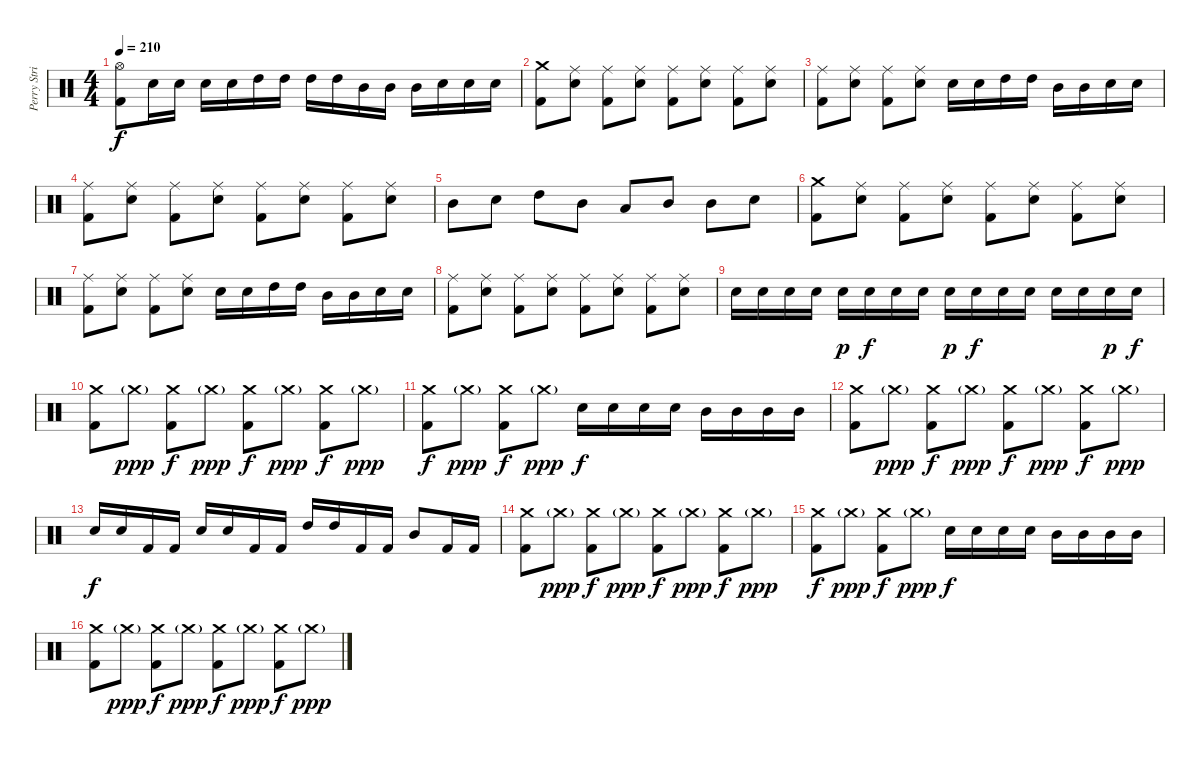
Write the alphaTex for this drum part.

\track ("Perry Strickland" "Perry Stri") {instrument percussion}
\staff {score}
\articulation defaults
\ts (4 4)
\tempo 210
\clef neutral
\ks c
("Hi-Hat (open)" "Kick (hit) 2").8{dy f} "Electric Snare (hit)".16 "Electric Snare (hit)".16 "Electric Snare (hit)".16 "Electric Snare (hit)".16 "High Tom (hit)".16 "High Tom (hit)".16 "High Tom (hit)".16 "High Tom (hit)".16 "Mid Tom (hit)".16 "Mid Tom (hit)".16 "Mid Tom (hit)".16 "Electric Snare (hit)".16 "Electric Snare (hit)".16 "Electric Snare (hit)".16 |
("Crash medium (hit)" "Kick (hit) 2").8 ("Ride (middle)" "Electric Snare (hit)").8 ("Ride (middle)" "Kick (hit) 2").8 ("Ride (middle)" "Electric Snare (hit)").8 ("Ride (middle)" "Kick (hit) 2").8 ("Ride (middle)" "Electric Snare (hit)").8 ("Ride (middle)" "Kick (hit) 2").8 ("Ride (middle)" "Electric Snare (hit)").8 |
("Ride (middle)" "Kick (hit) 2").8 ("Ride (middle)" "Electric Snare (hit)").8 ("Ride (middle)" "Kick (hit) 2").8 ("Ride (middle)" "Electric Snare (hit)").8 "Electric Snare (hit)".16 "Electric Snare (hit)".16 "High Tom (hit)".16 "High Tom (hit)".16 "Mid Tom (hit)".16 "Mid Tom (hit)".16 "Electric Snare (hit)".16 "Electric Snare (hit)".16 |
("Ride (middle)" "Kick (hit) 2").8 ("Ride (middle)" "Electric Snare (hit)").8 ("Ride (middle)" "Kick (hit) 2").8 ("Ride (middle)" "Electric Snare (hit)").8 ("Ride (middle)" "Kick (hit) 2").8 ("Ride (middle)" "Electric Snare (hit)").8 ("Ride (middle)" "Kick (hit) 2").8 ("Ride (middle)" "Electric Snare (hit)").8 |
"Mid Tom (hit)".8 "Electric Snare (hit)".8 "High Tom (hit)".8 "Mid Tom (hit)".8 "Low Tom (hit)".8 "Mid Tom (hit)".8 "Mid Tom (hit)".8 "Electric Snare (hit)".8 |
("Crash medium (hit)" "Kick (hit) 2").8 ("Ride (middle)" "Electric Snare (hit)").8 ("Ride (middle)" "Kick (hit) 2").8 ("Ride (middle)" "Electric Snare (hit)").8 ("Ride (middle)" "Kick (hit) 2").8 ("Ride (middle)" "Electric Snare (hit)").8 ("Ride (middle)" "Kick (hit) 2").8 ("Ride (middle)" "Electric Snare (hit)").8 |
("Ride (middle)" "Kick (hit) 2").8 ("Ride (middle)" "Electric Snare (hit)").8 ("Ride (middle)" "Kick (hit) 2").8 ("Ride (middle)" "Electric Snare (hit)").8 "Electric Snare (hit)".16 "Electric Snare (hit)".16 "High Tom (hit)".16 "High Tom (hit)".16 "Mid Tom (hit)".16 "Mid Tom (hit)".16 "Electric Snare (hit)".16 "Electric Snare (hit)".16 |
("Ride (middle)" "Kick (hit) 2").8 ("Ride (middle)" "Electric Snare (hit)").8 ("Ride (middle)" "Kick (hit) 2").8 ("Ride (middle)" "Electric Snare (hit)").8 ("Ride (middle)" "Kick (hit) 2").8 ("Ride (middle)" "Electric Snare (hit)").8 ("Ride (middle)" "Kick (hit) 2").8 ("Ride (middle)" "Electric Snare (hit)").8 |
"Electric Snare (hit)".16 "Electric Snare (hit)".16 "Electric Snare (hit)".16 "Electric Snare (hit)".16 "Electric Snare (hit)".16{dy p} "Electric Snare (hit)".16{dy f} "Electric Snare (hit)".16 "Electric Snare (hit)".16 "Electric Snare (hit)".16{dy p} "Electric Snare (hit)".16{dy f} "Electric Snare (hit)".16 "Electric Snare (hit)".16 "Electric Snare (hit)".16 "Electric Snare (hit)".16 "Electric Snare (hit)".16{dy p} "Electric Snare (hit)".16{dy f} |
("Crash medium (hit)" "Kick (hit) 2").8 "Crash medium (hit)"{g}.8{dy ppp} ("Crash medium (hit)" "Kick (hit) 2").8{dy f} "Crash medium (hit)"{g}.8{dy ppp} ("Crash medium (hit)" "Kick (hit) 2").8{dy f} "Crash medium (hit)"{g}.8{dy ppp} ("Crash medium (hit)" "Kick (hit) 2").8{dy f} "Crash medium (hit)"{g}.8{dy ppp} |
("Crash medium (hit)" "Kick (hit) 2").8{dy f} "Crash medium (hit)"{g}.8{dy ppp} ("Crash medium (hit)" "Kick (hit) 2").8{dy f} "Crash medium (hit)"{g}.8{dy ppp} "Electric Snare (hit)".16{dy f} "Electric Snare (hit)".16 "Electric Snare (hit)".16 "Electric Snare (hit)".16 "Mid Tom (hit)".16 "Mid Tom (hit)".16 "Mid Tom (hit)".16 "Mid Tom (hit)".16 |
("Crash medium (hit)" "Kick (hit) 2").8 "Crash medium (hit)"{g}.8{dy ppp} ("Crash medium (hit)" "Kick (hit) 2").8{dy f} "Crash medium (hit)"{g}.8{dy ppp} ("Crash medium (hit)" "Kick (hit) 2").8{dy f} "Crash medium (hit)"{g}.8{dy ppp} ("Crash medium (hit)" "Kick (hit) 2").8{dy f} "Crash medium (hit)"{g}.8{dy ppp} |
"Electric Snare (hit)".16{dy f} "Electric Snare (hit)".16 "Kick (hit) 2".16 "Kick (hit) 2".16 "Electric Snare (hit)".16 "Electric Snare (hit)".16 "Kick (hit) 2".16 "Kick (hit) 2".16 "High Tom (hit)".16 "High Tom (hit)".16 "Kick (hit) 2".16 "Kick (hit) 2".16 "Mid Tom (hit)".8 "Kick (hit) 2".16 "Kick (hit) 2".16 |
("Crash medium (hit)" "Kick (hit) 2").8 "Crash medium (hit)"{g}.8{dy ppp} ("Crash medium (hit)" "Kick (hit) 2").8{dy f} "Crash medium (hit)"{g}.8{dy ppp} ("Crash medium (hit)" "Kick (hit) 2").8{dy f} "Crash medium (hit)"{g}.8{dy ppp} ("Crash medium (hit)" "Kick (hit) 2").8{dy f} "Crash medium (hit)"{g}.8{dy ppp} |
("Crash medium (hit)" "Kick (hit) 2").8{dy f} "Crash medium (hit)"{g}.8{dy ppp} ("Crash medium (hit)" "Kick (hit) 2").8{dy f} "Crash medium (hit)"{g}.8{dy ppp} "Electric Snare (hit)".16{dy f} "Electric Snare (hit)".16 "Electric Snare (hit)".16 "Electric Snare (hit)".16 "Mid Tom (hit)".16 "Mid Tom (hit)".16 "Mid Tom (hit)".16 "Mid Tom (hit)".16 |
("Crash medium (hit)" "Kick (hit) 2").8 "Crash medium (hit)"{g}.8{dy ppp} ("Crash medium (hit)" "Kick (hit) 2").8{dy f} "Crash medium (hit)"{g}.8{dy ppp} ("Crash medium (hit)" "Kick (hit) 2").8{dy f} "Crash medium (hit)"{g}.8{dy ppp} ("Crash medium (hit)" "Kick (hit) 2").8{dy f} "Crash medium (hit)"{g}.8{dy ppp}
